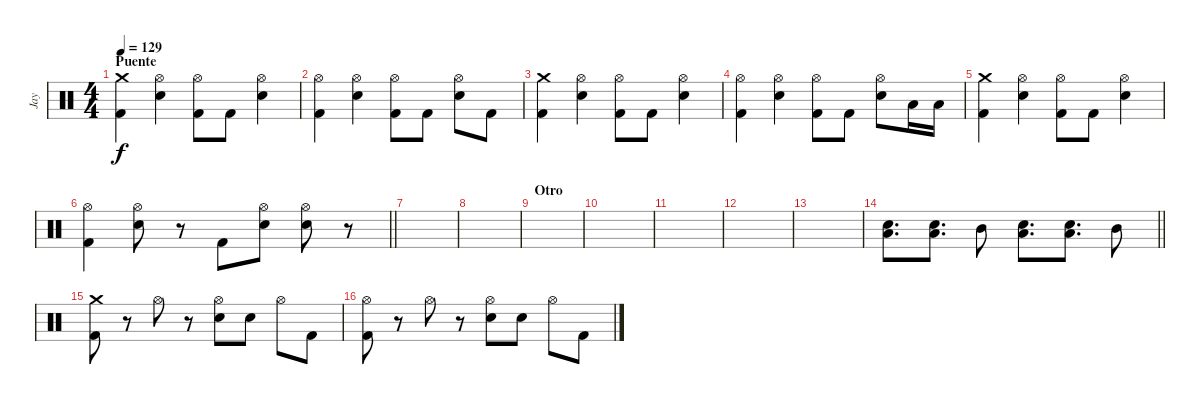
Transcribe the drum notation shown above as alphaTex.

\track ("Jay" "Jay") {instrument percussion}
\staff {score}
\articulation defaults
\ts (4 4)
\section ("" "Puente")
\tempo 129
\clef neutral
\ks c
("Crash medium (hit)" "Kick (hit) 2").4{dy f} ("Hi-Hat (open)" "Electric Snare (hit)").4 ("Hi-Hat (open)" "Kick (hit) 2").8 "Kick (hit) 2".8 ("Hi-Hat (open)" "Electric Snare (hit)").4 |
("Hi-Hat (open)" "Kick (hit) 2").4 ("Hi-Hat (open)" "Electric Snare (hit)").4 ("Hi-Hat (open)" "Kick (hit) 2").8 "Kick (hit) 2".8 ("Hi-Hat (open)" "Electric Snare (hit)").8 "Kick (hit) 2".8 |
("Crash medium (hit)" "Kick (hit) 2").4 ("Hi-Hat (open)" "Electric Snare (hit)").4 ("Hi-Hat (open)" "Kick (hit) 2").8 "Kick (hit) 2".8 ("Hi-Hat (open)" "Electric Snare (hit)").4 |
("Hi-Hat (open)" "Kick (hit) 2").4 ("Hi-Hat (open)" "Electric Snare (hit)").4 ("Hi-Hat (open)" "Kick (hit) 2").8 "Kick (hit) 2".8 ("Hi-Hat (open)" "Electric Snare (hit)").8 "Low Tom (hit)".16 "Low Tom (hit)".16 |
("Crash medium (hit)" "Kick (hit) 2").4 ("Hi-Hat (open)" "Electric Snare (hit)").4 ("Hi-Hat (open)" "Kick (hit) 2").8 "Kick (hit) 2".8 ("Hi-Hat (open)" "Electric Snare (hit)").4 |
\barLineRight lightlight
("Hi-Hat (open)" "Kick (hit) 2").4 ("Hi-Hat (open)" "Electric Snare (hit)").8 r.8 "Kick (hit) 2".8 ("Hi-Hat (open)" "Electric Snare (hit)").8 ("Hi-Hat (open)" "Electric Snare (hit)").8 r.8 |
|
|
\section ("" "Otro")
|
|
|
|
|
\barLineRight lightlight
("Low Tom (hit)" "Electric Snare (hit)").8{d} ("Low Tom (hit)" "Electric Snare (hit)").8{d} "Mid Tom (hit)".8 ("Low Tom (hit)" "Electric Snare (hit)").8{d} ("Low Tom (hit)" "Electric Snare (hit)").8{d} "Mid Tom (hit)".8 |
("Crash medium (hit)" "Kick (hit) 2").8 r.8 "Hi-Hat (open)".8 r.8 ("Hi-Hat (open)" "Electric Snare (hit)").8 "Electric Snare (hit)".8 "Hi-Hat (open)".8 "Kick (hit) 2".8 |
("Hi-Hat (open)" "Kick (hit) 2").8 r.8 "Hi-Hat (open)".8 r.8 ("Hi-Hat (open)" "Electric Snare (hit)").8 "Electric Snare (hit)".8 "Hi-Hat (open)".8 "Kick (hit) 2".8
